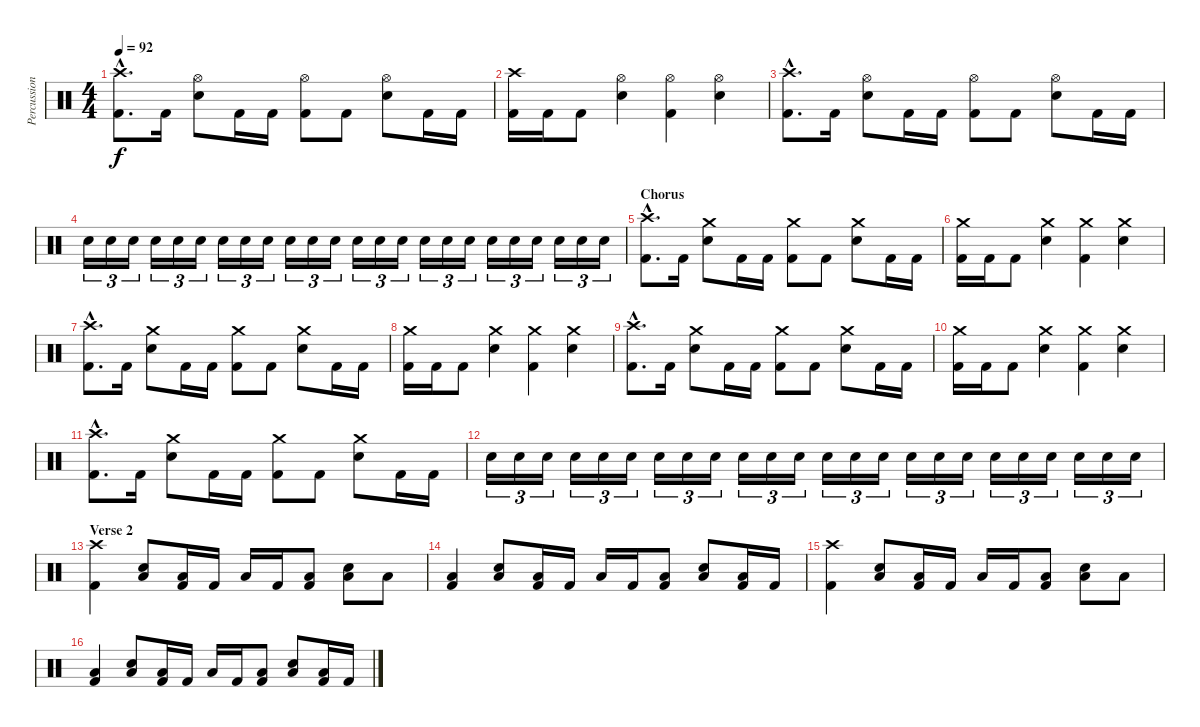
\track ("Percussion" "Percussion") {instrument percussion}
\staff {score}
\articulation defaults
\ts (4 4)
\tempo 92
\clef neutral
\ks c
("Crash high (hit)"{hac} "Kick (hit) 2"{hac}).8{d dy f} "Kick (hit) 2".16 ("Hi-Hat (open)" "Electric Snare (hit)").8 "Kick (hit) 2".16 "Kick (hit) 2".16 ("Hi-Hat (open)" "Kick (hit) 2").8 "Kick (hit) 2".8 ("Hi-Hat (open)" "Electric Snare (hit)").8 "Kick (hit) 2".16 "Kick (hit) 2".16 |
("Crash high (hit)" "Kick (hit) 2").16 "Kick (hit) 2".16 "Kick (hit) 2".8 ("Hi-Hat (open)" "Electric Snare (hit)").4 ("Hi-Hat (open)" "Kick (hit) 2").4 ("Hi-Hat (open)" "Electric Snare (hit)").4 |
("Crash high (hit)"{hac} "Kick (hit) 2"{hac}).8{d} "Kick (hit) 2".16 ("Hi-Hat (open)" "Electric Snare (hit)").8 "Kick (hit) 2".16 "Kick (hit) 2".16 ("Hi-Hat (open)" "Kick (hit) 2").8 "Kick (hit) 2".8 ("Hi-Hat (open)" "Electric Snare (hit)").8 "Kick (hit) 2".16 "Kick (hit) 2".16 |
"Electric Snare (hit)".16{tu (3 2)} "Electric Snare (hit)".16{tu (3 2)} "Electric Snare (hit)".16{tu (3 2)} "Electric Snare (hit)".16{tu (3 2)} "Electric Snare (hit)".16{tu (3 2)} "Electric Snare (hit)".16{tu (3 2)} "Electric Snare (hit)".16{tu (3 2)} "Electric Snare (hit)".16{tu (3 2)} "Electric Snare (hit)".16{tu (3 2)} "Electric Snare (hit)".16{tu (3 2)} "Electric Snare (hit)".16{tu (3 2)} "Electric Snare (hit)".16{tu (3 2)} "Electric Snare (hit)".16{tu (3 2)} "Electric Snare (hit)".16{tu (3 2)} "Electric Snare (hit)".16{tu (3 2)} "Electric Snare (hit)".16{tu (3 2)} "Electric Snare (hit)".16{tu (3 2)} "Electric Snare (hit)".16{tu (3 2)} "Electric Snare (hit)".16{tu (3 2)} "Electric Snare (hit)".16{tu (3 2)} "Electric Snare (hit)".16{tu (3 2)} "Electric Snare (hit)".16{tu (3 2)} "Electric Snare (hit)".16{tu (3 2)} "Electric Snare (hit)".16{tu (3 2)} |
\section ("" "Chorus")
("Crash high (hit)"{hac} "Kick (hit) 2"{hac}).8{d} "Kick (hit) 2".16 ("Crash medium (hit)" "Electric Snare (hit)").8 "Kick (hit) 2".16 "Kick (hit) 2".16 ("Crash medium (hit)" "Kick (hit) 2").8 "Kick (hit) 2".8 ("Crash medium (hit)" "Electric Snare (hit)").8 "Kick (hit) 2".16 "Kick (hit) 2".16 |
("Crash medium (hit)" "Kick (hit) 2").16 "Kick (hit) 2".16 "Kick (hit) 2".8 ("Crash medium (hit)" "Electric Snare (hit)").4 ("Crash medium (hit)" "Kick (hit) 2").4 ("Crash medium (hit)" "Electric Snare (hit)").4 |
("Crash high (hit)"{hac} "Kick (hit) 2"{hac}).8{d} "Kick (hit) 2".16 ("Crash medium (hit)" "Electric Snare (hit)").8 "Kick (hit) 2".16 "Kick (hit) 2".16 ("Crash medium (hit)" "Kick (hit) 2").8 "Kick (hit) 2".8 ("Crash medium (hit)" "Electric Snare (hit)").8 "Kick (hit) 2".16 "Kick (hit) 2".16 |
("Crash medium (hit)" "Kick (hit) 2").16 "Kick (hit) 2".16 "Kick (hit) 2".8 ("Crash medium (hit)" "Electric Snare (hit)").4 ("Crash medium (hit)" "Kick (hit) 2").4 ("Crash medium (hit)" "Electric Snare (hit)").4 |
("Crash high (hit)"{hac} "Kick (hit) 2"{hac}).8{d} "Kick (hit) 2".16 ("Crash medium (hit)" "Electric Snare (hit)").8 "Kick (hit) 2".16 "Kick (hit) 2".16 ("Crash medium (hit)" "Kick (hit) 2").8 "Kick (hit) 2".8 ("Crash medium (hit)" "Electric Snare (hit)").8 "Kick (hit) 2".16 "Kick (hit) 2".16 |
("Crash medium (hit)" "Kick (hit) 2").16 "Kick (hit) 2".16 "Kick (hit) 2".8 ("Crash medium (hit)" "Electric Snare (hit)").4 ("Crash medium (hit)" "Kick (hit) 2").4 ("Crash medium (hit)" "Electric Snare (hit)").4 |
("Crash high (hit)"{hac} "Kick (hit) 2"{hac}).8{d} "Kick (hit) 2".16 ("Crash medium (hit)" "Electric Snare (hit)").8 "Kick (hit) 2".16 "Kick (hit) 2".16 ("Crash medium (hit)" "Kick (hit) 2").8 "Kick (hit) 2".8 ("Crash medium (hit)" "Electric Snare (hit)").8 "Kick (hit) 2".16 "Kick (hit) 2".16 |
"Electric Snare (hit)".16{tu (3 2)} "Electric Snare (hit)".16{tu (3 2)} "Electric Snare (hit)".16{tu (3 2)} "Electric Snare (hit)".16{tu (3 2)} "Electric Snare (hit)".16{tu (3 2)} "Electric Snare (hit)".16{tu (3 2)} "Electric Snare (hit)".16{tu (3 2)} "Electric Snare (hit)".16{tu (3 2)} "Electric Snare (hit)".16{tu (3 2)} "Electric Snare (hit)".16{tu (3 2)} "Electric Snare (hit)".16{tu (3 2)} "Electric Snare (hit)".16{tu (3 2)} "Electric Snare (hit)".16{tu (3 2)} "Electric Snare (hit)".16{tu (3 2)} "Electric Snare (hit)".16{tu (3 2)} "Electric Snare (hit)".16{tu (3 2)} "Electric Snare (hit)".16{tu (3 2)} "Electric Snare (hit)".16{tu (3 2)} "Electric Snare (hit)".16{tu (3 2)} "Electric Snare (hit)".16{tu (3 2)} "Electric Snare (hit)".16{tu (3 2)} "Electric Snare (hit)".16{tu (3 2)} "Electric Snare (hit)".16{tu (3 2)} "Electric Snare (hit)".16{tu (3 2)} |
\section ("" "Verse 2")
("Crash high (hit)" "Kick (hit) 2").4 ("Low Tom (hit)" "Electric Snare (hit)").8 ("Low Tom (hit)" "Kick (hit) 2").16 "Kick (hit) 2".16 "Low Tom (hit)".16 "Kick (hit) 2".16 ("Low Tom (hit)" "Kick (hit) 2").8 ("Low Tom (hit)" "Electric Snare (hit)").8 "Low Tom (hit)".8 |
("Low Tom (hit)" "Kick (hit) 2").4 ("Low Tom (hit)" "Electric Snare (hit)").8 ("Low Tom (hit)" "Kick (hit) 2").16 "Kick (hit) 2".16 "Low Tom (hit)".16 "Kick (hit) 2".16 ("Low Tom (hit)" "Kick (hit) 2").8 ("Low Tom (hit)" "Electric Snare (hit)").8 ("Low Tom (hit)" "Kick (hit) 2").16 "Kick (hit) 2".16 |
("Crash high (hit)" "Kick (hit) 2").4 ("Low Tom (hit)" "Electric Snare (hit)").8 ("Low Tom (hit)" "Kick (hit) 2").16 "Kick (hit) 2".16 "Low Tom (hit)".16 "Kick (hit) 2".16 ("Low Tom (hit)" "Kick (hit) 2").8 ("Low Tom (hit)" "Electric Snare (hit)").8 "Low Tom (hit)".8 |
("Low Tom (hit)" "Kick (hit) 2").4 ("Low Tom (hit)" "Electric Snare (hit)").8 ("Low Tom (hit)" "Kick (hit) 2").16 "Kick (hit) 2".16 "Low Tom (hit)".16 "Kick (hit) 2".16 ("Low Tom (hit)" "Kick (hit) 2").8 ("Low Tom (hit)" "Electric Snare (hit)").8 ("Low Tom (hit)" "Kick (hit) 2").16 "Kick (hit) 2".16
